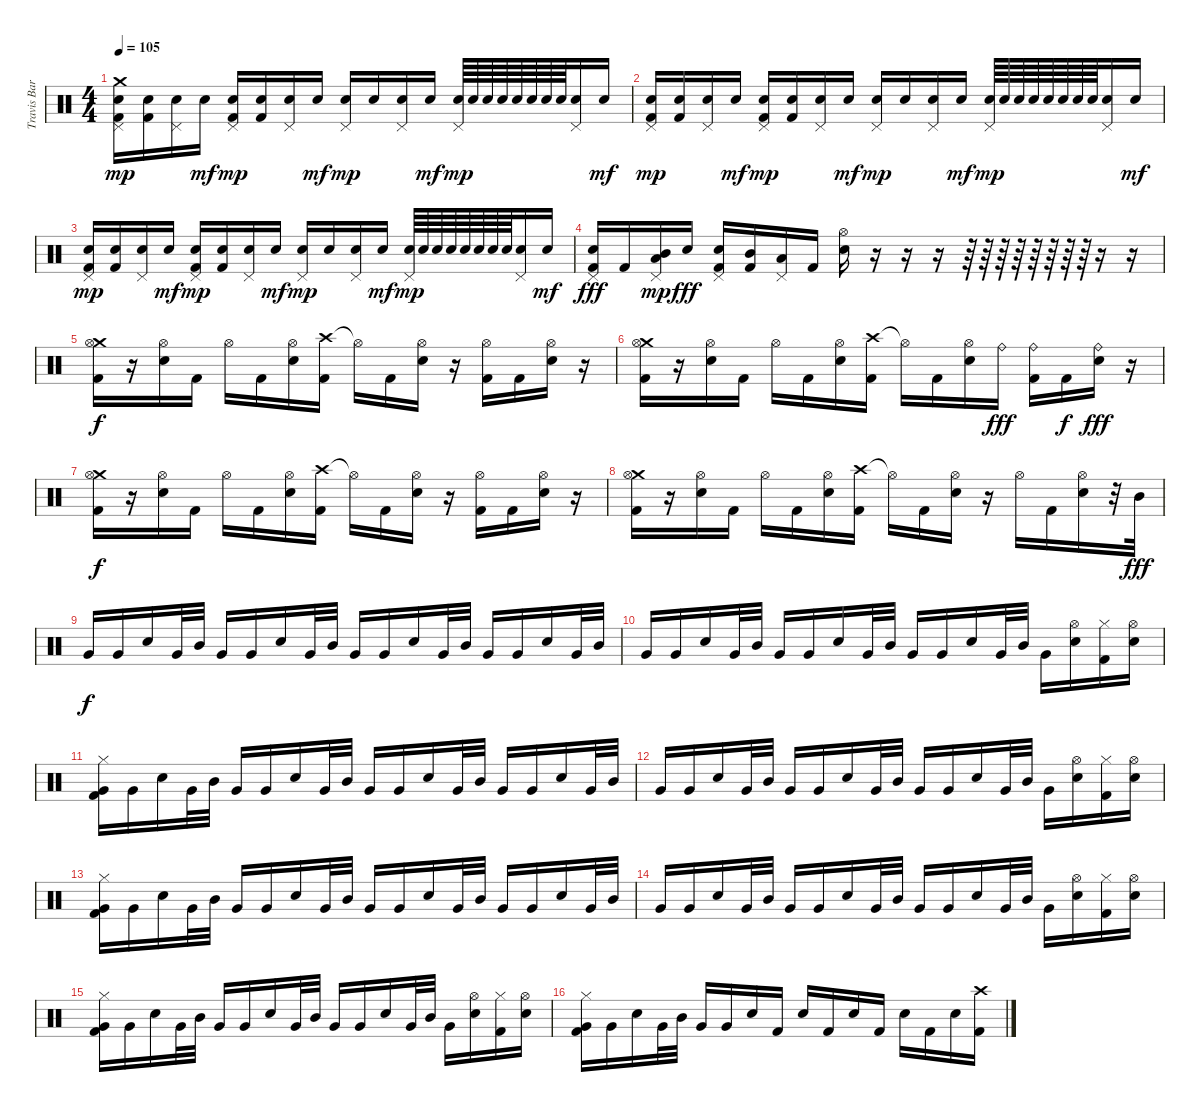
\track ("Travis Barker(Drums)" "Travis Bar") {instrument percussion}
\staff {score}
\articulation defaults
\ts (4 4)
\tempo 105
\clef neutral
\ks c
("Crash medium (hit)" "Pedal Hi-Hat (hit)" "Electric Snare (hit)" "Kick (hit) 2").16{dy mp} ("Electric Snare (hit)" "Kick (hit) 2").16 ("Pedal Hi-Hat (hit)" "Electric Snare (hit)").16 "Electric Snare (hit)".16{dy mf} ("Pedal Hi-Hat (hit)" "Electric Snare (hit)" "Kick (hit) 2").16{dy mp} ("Electric Snare (hit)" "Kick (hit) 2").16 ("Pedal Hi-Hat (hit)" "Electric Snare (hit)").16 "Electric Snare (hit)".16{dy mf} ("Pedal Hi-Hat (hit)" "Electric Snare (hit)").16{dy mp} "Electric Snare (hit)".16 ("Pedal Hi-Hat (hit)" "Electric Snare (hit)").16 "Electric Snare (hit)".16{dy mf} ("Pedal Hi-Hat (hit)" "Electric Snare (hit)").64{dy mp} "Electric Snare (hit)".64 "Electric Snare (hit)".64 "Electric Snare (hit)".64 "Electric Snare (hit)".64 "Electric Snare (hit)".64 "Electric Snare (hit)".64 "Electric Snare (hit)".64 ("Pedal Hi-Hat (hit)" "Electric Snare (hit)").16 "Electric Snare (hit)".16{dy mf} |
("Pedal Hi-Hat (hit)" "Electric Snare (hit)" "Kick (hit) 2").16{dy mp} ("Electric Snare (hit)" "Kick (hit) 2").16 ("Pedal Hi-Hat (hit)" "Electric Snare (hit)").16 "Electric Snare (hit)".16{dy mf} ("Pedal Hi-Hat (hit)" "Electric Snare (hit)" "Kick (hit) 2").16{dy mp} ("Electric Snare (hit)" "Kick (hit) 2").16 ("Pedal Hi-Hat (hit)" "Electric Snare (hit)").16 "Electric Snare (hit)".16{dy mf} ("Pedal Hi-Hat (hit)" "Electric Snare (hit)").16{dy mp} "Electric Snare (hit)".16 ("Pedal Hi-Hat (hit)" "Electric Snare (hit)").16 "Electric Snare (hit)".16{dy mf} ("Pedal Hi-Hat (hit)" "Electric Snare (hit)").64{dy mp} "Electric Snare (hit)".64 "Electric Snare (hit)".64 "Electric Snare (hit)".64 "Electric Snare (hit)".64 "Electric Snare (hit)".64 "Electric Snare (hit)".64 "Electric Snare (hit)".64 ("Pedal Hi-Hat (hit)" "Electric Snare (hit)").16 "Electric Snare (hit)".16{dy mf} |
("Pedal Hi-Hat (hit)" "Electric Snare (hit)" "Kick (hit) 2").16{dy mp} ("Electric Snare (hit)" "Kick (hit) 2").16 ("Pedal Hi-Hat (hit)" "Electric Snare (hit)").16 "Electric Snare (hit)".16{dy mf} ("Pedal Hi-Hat (hit)" "Electric Snare (hit)" "Kick (hit) 2").16{dy mp} ("Electric Snare (hit)" "Kick (hit) 2").16 ("Pedal Hi-Hat (hit)" "Electric Snare (hit)").16 "Electric Snare (hit)".16{dy mf} ("Pedal Hi-Hat (hit)" "Electric Snare (hit)").16{dy mp} "Electric Snare (hit)".16 ("Pedal Hi-Hat (hit)" "Electric Snare (hit)").16 "Electric Snare (hit)".16{dy mf} ("Pedal Hi-Hat (hit)" "Electric Snare (hit)").64{dy mp} "Electric Snare (hit)".64 "Electric Snare (hit)".64 "Electric Snare (hit)".64 "Electric Snare (hit)".64 "Electric Snare (hit)".64 "Electric Snare (hit)".64 "Electric Snare (hit)".64 ("Pedal Hi-Hat (hit)" "Electric Snare (hit)").16 "Electric Snare (hit)".16{dy mf} |
("Pedal Hi-Hat (hit)" "Electric Snare (hit)" "Kick (hit) 2").16{dy fff} "Kick (hit) 2".16 ("Pedal Hi-Hat (hit)" "Mid Tom (hit)" "Low Tom (hit)").16{dy mp} "Electric Snare (hit)".16{dy fff} ("Pedal Hi-Hat (hit)" "Electric Snare (hit)" "Kick (hit) 2").16 ("Mid Tom (hit)" "Kick (hit) 2").16 ("Pedal Hi-Hat (hit)" "Low Tom (hit)").16 "Kick (hit) 2".16 ("Hi-Hat (open)" "Electric Snare (hit)").16 r.16 r.16 r.16 r.64 r.64 r.64 r.64 r.64 r.64 r.64 r.64 r.16 r.16 |
("Crash medium (hit)" "Hi-Hat (open)" "Kick (hit) 2").16{dy f} r.16 ("Hi-Hat (open)" "Electric Snare (hit)").16 "Kick (hit) 2".16 "Hi-Hat (open)".16 "Kick (hit) 2".16 ("Hi-Hat (open)" "Electric Snare (hit)").16 ("Crash high (hit)" "Kick (hit) 2").16 "Hi-Hat (open)"{t}.16 "Kick (hit) 2".16 ("Hi-Hat (open)" "Electric Snare (hit)").16 r.16 ("Hi-Hat (open)" "Kick (hit) 2").16 "Kick (hit) 2".16 ("Hi-Hat (open)" "Electric Snare (hit)").16 r.16 |
("Crash medium (hit)" "Hi-Hat (open)" "Kick (hit) 2").16 r.16 ("Hi-Hat (open)" "Electric Snare (hit)").16 "Kick (hit) 2".16 "Hi-Hat (open)".16 "Kick (hit) 2".16 ("Hi-Hat (open)" "Electric Snare (hit)").16 ("Crash high (hit)" "Kick (hit) 2").16 "Hi-Hat (open)"{t}.16 "Kick (hit) 2".16 ("Hi-Hat (open)" "Electric Snare (hit)").16 "Ride (bell)".16{dy fff} ("Ride (bell)" "Kick (hit) 2").16 "Kick (hit) 2".16{dy f} ("Ride (bell)" "Electric Snare (hit)").16{dy fff} r.16 |
("Crash medium (hit)" "Hi-Hat (open)" "Kick (hit) 2").16{dy f} r.16 ("Hi-Hat (open)" "Electric Snare (hit)").16 "Kick (hit) 2".16 "Hi-Hat (open)".16 "Kick (hit) 2".16 ("Hi-Hat (open)" "Electric Snare (hit)").16 ("Crash high (hit)" "Kick (hit) 2").16 "Hi-Hat (open)"{t}.16 "Kick (hit) 2".16 ("Hi-Hat (open)" "Electric Snare (hit)").16 r.16 ("Hi-Hat (open)" "Kick (hit) 2").16 "Kick (hit) 2".16 ("Hi-Hat (open)" "Electric Snare (hit)").16 r.16 |
("Crash medium (hit)" "Hi-Hat (open)" "Kick (hit) 2").16 r.16 ("Hi-Hat (open)" "Electric Snare (hit)").16 "Kick (hit) 2".16 "Hi-Hat (open)".16 "Kick (hit) 2".16 ("Hi-Hat (open)" "Electric Snare (hit)").16 ("Crash high (hit)" "Kick (hit) 2").16 "Hi-Hat (open)"{t}.16 "Kick (hit) 2".16 ("Hi-Hat (open)" "Electric Snare (hit)").16 r.16 "Hi-Hat (open)".16 "Kick (hit) 2".16 ("Hi-Hat (open)" "Electric Snare (hit)").16 r.32 "Mid Tom (hit)".32{dy fff} |
"Very Low Tom (hit)".16{dy f} "Very Low Tom (hit)".16 "Electric Snare (hit)".16 "Very Low Tom (hit)".32 "Mid Tom (hit)".32 "Very Low Tom (hit)".16 "Very Low Tom (hit)".16 "Electric Snare (hit)".16 "Very Low Tom (hit)".32 "Mid Tom (hit)".32 "Very Low Tom (hit)".16 "Very Low Tom (hit)".16 "Electric Snare (hit)".16 "Very Low Tom (hit)".32 "Mid Tom (hit)".32 "Very Low Tom (hit)".16 "Very Low Tom (hit)".16 "Electric Snare (hit)".16 "Very Low Tom (hit)".32 "Mid Tom (hit)".32 |
"Very Low Tom (hit)".16 "Very Low Tom (hit)".16 "Electric Snare (hit)".16 "Very Low Tom (hit)".32 "Mid Tom (hit)".32 "Very Low Tom (hit)".16 "Very Low Tom (hit)".16 "Electric Snare (hit)".16 "Very Low Tom (hit)".32 "Mid Tom (hit)".32 "Very Low Tom (hit)".16 "Very Low Tom (hit)".16 "Electric Snare (hit)".16 "Very Low Tom (hit)".32 "Mid Tom (hit)".32 "Very Low Tom (hit)".16 ("Hi-Hat (open)" "Electric Snare (hit)").16 ("Hi-Hat (closed)" "Kick (hit) 2").16 ("Hi-Hat (open)" "Electric Snare (hit)").16 |
("Hi-Hat (closed)" "Very Low Tom (hit)" "Kick (hit) 2").16 "Very Low Tom (hit)".16 "Electric Snare (hit)".16 "Very Low Tom (hit)".32 "Mid Tom (hit)".32 "Very Low Tom (hit)".16 "Very Low Tom (hit)".16 "Electric Snare (hit)".16 "Very Low Tom (hit)".32 "Mid Tom (hit)".32 "Very Low Tom (hit)".16 "Very Low Tom (hit)".16 "Electric Snare (hit)".16 "Very Low Tom (hit)".32 "Mid Tom (hit)".32 "Very Low Tom (hit)".16 "Very Low Tom (hit)".16 "Electric Snare (hit)".16 "Very Low Tom (hit)".32 "Mid Tom (hit)".32 |
"Very Low Tom (hit)".16 "Very Low Tom (hit)".16 "Electric Snare (hit)".16 "Very Low Tom (hit)".32 "Mid Tom (hit)".32 "Very Low Tom (hit)".16 "Very Low Tom (hit)".16 "Electric Snare (hit)".16 "Very Low Tom (hit)".32 "Mid Tom (hit)".32 "Very Low Tom (hit)".16 "Very Low Tom (hit)".16 "Electric Snare (hit)".16 "Very Low Tom (hit)".32 "Mid Tom (hit)".32 "Very Low Tom (hit)".16 ("Hi-Hat (open)" "Electric Snare (hit)").16 ("Hi-Hat (closed)" "Kick (hit) 2").16 ("Hi-Hat (open)" "Electric Snare (hit)").16 |
("Hi-Hat (closed)" "Very Low Tom (hit)" "Kick (hit) 2").16 "Very Low Tom (hit)".16 "Electric Snare (hit)".16 "Very Low Tom (hit)".32 "Mid Tom (hit)".32 "Very Low Tom (hit)".16 "Very Low Tom (hit)".16 "Electric Snare (hit)".16 "Very Low Tom (hit)".32 "Mid Tom (hit)".32 "Very Low Tom (hit)".16 "Very Low Tom (hit)".16 "Electric Snare (hit)".16 "Very Low Tom (hit)".32 "Mid Tom (hit)".32 "Very Low Tom (hit)".16 "Very Low Tom (hit)".16 "Electric Snare (hit)".16 "Very Low Tom (hit)".32 "Mid Tom (hit)".32 |
"Very Low Tom (hit)".16 "Very Low Tom (hit)".16 "Electric Snare (hit)".16 "Very Low Tom (hit)".32 "Mid Tom (hit)".32 "Very Low Tom (hit)".16 "Very Low Tom (hit)".16 "Electric Snare (hit)".16 "Very Low Tom (hit)".32 "Mid Tom (hit)".32 "Very Low Tom (hit)".16 "Very Low Tom (hit)".16 "Electric Snare (hit)".16 "Very Low Tom (hit)".32 "Mid Tom (hit)".32 "Very Low Tom (hit)".16 ("Hi-Hat (open)" "Electric Snare (hit)").16 ("Hi-Hat (closed)" "Kick (hit) 2").16 ("Hi-Hat (open)" "Electric Snare (hit)").16 |
("Hi-Hat (closed)" "Very Low Tom (hit)" "Kick (hit) 2").16 "Very Low Tom (hit)".16 "Electric Snare (hit)".16 "Very Low Tom (hit)".32 "Mid Tom (hit)".32 "Very Low Tom (hit)".16 "Very Low Tom (hit)".16 "Electric Snare (hit)".16 "Very Low Tom (hit)".32 "Mid Tom (hit)".32 "Very Low Tom (hit)".16 "Very Low Tom (hit)".16 "Electric Snare (hit)".16 "Very Low Tom (hit)".32 "Mid Tom (hit)".32 "Very Low Tom (hit)".16 ("Hi-Hat (open)" "Electric Snare (hit)").16 ("Hi-Hat (closed)" "Kick (hit) 2").16 ("Hi-Hat (open)" "Electric Snare (hit)").16 |
("Hi-Hat (closed)" "Very Low Tom (hit)" "Kick (hit) 2").16 "Very Low Tom (hit)".16 "Electric Snare (hit)".16 "Very Low Tom (hit)".32 "Mid Tom (hit)".32 "Very Low Tom (hit)".16 "Very Low Tom (hit)".16 "Electric Snare (hit)".16 "Kick (hit) 2".16 "Electric Snare (hit)".16 "Kick (hit) 2".16 "Electric Snare (hit)".16 "Kick (hit) 2".16 "Electric Snare (hit)".16 "Kick (hit) 2".16 "Electric Snare (hit)".16 ("Crash high (hit)" "Kick (hit) 2").16
